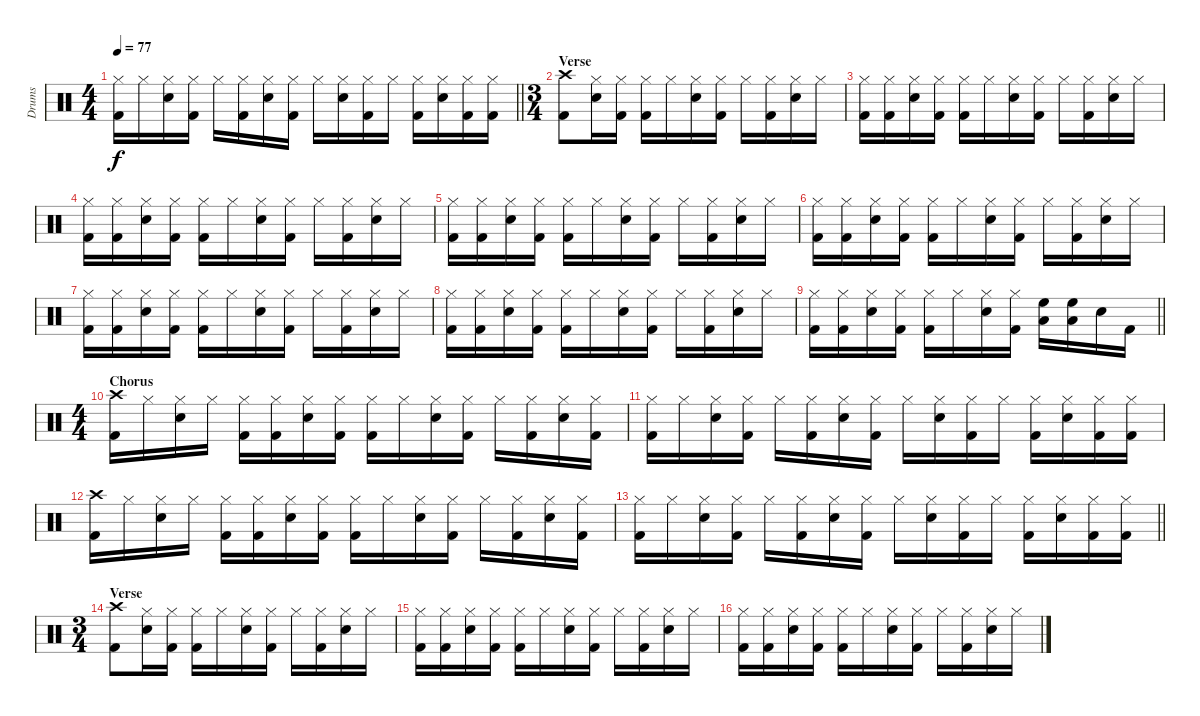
\track ("Drums" "Drums") {instrument percussion}
\staff {score}
\articulation defaults
\ts (4 4)
\tempo 77
\clef neutral
\barLineRight lightlight
\ks c
("Hi-Hat (closed)" "Kick (hit) 2").16{dy f} "Hi-Hat (closed)".16 ("Hi-Hat (closed)" "Snare (hit) 2").16 ("Hi-Hat (closed)" "Kick (hit) 2").16 "Hi-Hat (closed)".16 ("Hi-Hat (closed)" "Kick (hit) 2").16 ("Hi-Hat (closed)" "Snare (hit) 2").16 ("Hi-Hat (closed)" "Kick (hit) 2").16 "Hi-Hat (closed)".16 ("Hi-Hat (closed)" "Snare (hit) 2").16 ("Hi-Hat (closed)" "Kick (hit) 2").16 "Hi-Hat (closed)".16 ("Hi-Hat (closed)" "Kick (hit) 2").16 ("Hi-Hat (closed)" "Snare (hit) 2").16 ("Hi-Hat (closed)" "Kick (hit) 2").16 ("Hi-Hat (closed)" "Kick (hit) 2").16 |
\ts (3 4)
\section ("" "Verse")
("Crash high (hit)" "Kick (hit) 2").8 ("Hi-Hat (closed)" "Snare (hit) 2").16 ("Hi-Hat (closed)" "Kick (hit) 2").16 ("Hi-Hat (closed)" "Kick (hit) 2").16 "Hi-Hat (closed)".16 ("Hi-Hat (closed)" "Snare (hit) 2").16 ("Hi-Hat (closed)" "Kick (hit) 2").16 "Hi-Hat (closed)".16 ("Hi-Hat (closed)" "Kick (hit) 2").16 ("Hi-Hat (closed)" "Snare (hit) 2").16 "Hi-Hat (closed)".16 |
("Hi-Hat (closed)" "Kick (hit) 2").16 ("Hi-Hat (closed)" "Kick (hit) 2").16 ("Hi-Hat (closed)" "Snare (hit) 2").16 ("Hi-Hat (closed)" "Kick (hit) 2").16 ("Hi-Hat (closed)" "Kick (hit) 2").16 "Hi-Hat (closed)".16 ("Hi-Hat (closed)" "Snare (hit) 2").16 ("Hi-Hat (closed)" "Kick (hit) 2").16 "Hi-Hat (closed)".16 ("Hi-Hat (closed)" "Kick (hit) 2").16 ("Hi-Hat (closed)" "Snare (hit) 2").16 "Hi-Hat (closed)".16 |
("Hi-Hat (closed)" "Kick (hit) 2").16 ("Hi-Hat (closed)" "Kick (hit) 2").16 ("Hi-Hat (closed)" "Snare (hit) 2").16 ("Hi-Hat (closed)" "Kick (hit) 2").16 ("Hi-Hat (closed)" "Kick (hit) 2").16 "Hi-Hat (closed)".16 ("Hi-Hat (closed)" "Snare (hit) 2").16 ("Hi-Hat (closed)" "Kick (hit) 2").16 "Hi-Hat (closed)".16 ("Hi-Hat (closed)" "Kick (hit) 2").16 ("Hi-Hat (closed)" "Snare (hit) 2").16 "Hi-Hat (closed)".16 |
("Hi-Hat (closed)" "Kick (hit) 2").16 ("Hi-Hat (closed)" "Kick (hit) 2").16 ("Hi-Hat (closed)" "Snare (hit) 2").16 ("Hi-Hat (closed)" "Kick (hit) 2").16 ("Hi-Hat (closed)" "Kick (hit) 2").16 "Hi-Hat (closed)".16 ("Hi-Hat (closed)" "Snare (hit) 2").16 ("Hi-Hat (closed)" "Kick (hit) 2").16 "Hi-Hat (closed)".16 ("Hi-Hat (closed)" "Kick (hit) 2").16 ("Hi-Hat (closed)" "Snare (hit) 2").16 "Hi-Hat (closed)".16 |
("Hi-Hat (closed)" "Kick (hit) 2").16 ("Hi-Hat (closed)" "Kick (hit) 2").16 ("Hi-Hat (closed)" "Snare (hit) 2").16 ("Hi-Hat (closed)" "Kick (hit) 2").16 ("Hi-Hat (closed)" "Kick (hit) 2").16 "Hi-Hat (closed)".16 ("Hi-Hat (closed)" "Snare (hit) 2").16 ("Hi-Hat (closed)" "Kick (hit) 2").16 "Hi-Hat (closed)".16 ("Hi-Hat (closed)" "Kick (hit) 2").16 ("Hi-Hat (closed)" "Snare (hit) 2").16 "Hi-Hat (closed)".16 |
("Hi-Hat (closed)" "Kick (hit) 2").16 ("Hi-Hat (closed)" "Kick (hit) 2").16 ("Hi-Hat (closed)" "Snare (hit) 2").16 ("Hi-Hat (closed)" "Kick (hit) 2").16 ("Hi-Hat (closed)" "Kick (hit) 2").16 "Hi-Hat (closed)".16 ("Hi-Hat (closed)" "Snare (hit) 2").16 ("Hi-Hat (closed)" "Kick (hit) 2").16 "Hi-Hat (closed)".16 ("Hi-Hat (closed)" "Kick (hit) 2").16 ("Hi-Hat (closed)" "Snare (hit) 2").16 "Hi-Hat (closed)".16 |
("Hi-Hat (closed)" "Kick (hit) 2").16 ("Hi-Hat (closed)" "Kick (hit) 2").16 ("Hi-Hat (closed)" "Snare (hit) 2").16 ("Hi-Hat (closed)" "Kick (hit) 2").16 ("Hi-Hat (closed)" "Kick (hit) 2").16 "Hi-Hat (closed)".16 ("Hi-Hat (closed)" "Snare (hit) 2").16 ("Hi-Hat (closed)" "Kick (hit) 2").16 "Hi-Hat (closed)".16 ("Hi-Hat (closed)" "Kick (hit) 2").16 ("Hi-Hat (closed)" "Snare (hit) 2").16 "Hi-Hat (closed)".16 |
\barLineRight lightlight
("Hi-Hat (closed)" "Kick (hit) 2").16 ("Hi-Hat (closed)" "Kick (hit) 2").16 ("Hi-Hat (closed)" "Snare (hit) 2").16 ("Hi-Hat (closed)" "Kick (hit) 2").16 ("Hi-Hat (closed)" "Kick (hit) 2").16 "Hi-Hat (closed)".16 ("Hi-Hat (closed)" "Snare (hit) 2").16 ("Hi-Hat (closed)" "Kick (hit) 2").16 ("High Floor Tom (hit)" "Low Floor Tom (hit)").16 ("High Floor Tom (hit)" "Low Floor Tom (hit)").16 "Snare (hit) 2".16 "Kick (hit) 2".16 |
\ts (4 4)
\section ("" "Chorus")
("Crash high (hit)" "Kick (hit) 2").16 "Hi-Hat (closed)".16 ("Hi-Hat (closed)" "Snare (hit) 2").16 "Hi-Hat (closed)".16 ("Hi-Hat (closed)" "Kick (hit) 2").16 ("Hi-Hat (closed)" "Kick (hit) 2").16 ("Hi-Hat (closed)" "Snare (hit) 2").16 ("Hi-Hat (closed)" "Kick (hit) 2").16 ("Hi-Hat (closed)" "Kick (hit) 2").16 "Hi-Hat (closed)".16 ("Hi-Hat (closed)" "Snare (hit) 2").16 ("Hi-Hat (closed)" "Kick (hit) 2").16 "Hi-Hat (closed)".16 ("Hi-Hat (closed)" "Kick (hit) 2").16 ("Hi-Hat (closed)" "Snare (hit) 2").16 ("Hi-Hat (closed)" "Kick (hit) 2").16 |
("Hi-Hat (closed)" "Kick (hit) 2").16 "Hi-Hat (closed)".16 ("Hi-Hat (closed)" "Snare (hit) 2").16 ("Hi-Hat (closed)" "Kick (hit) 2").16 "Hi-Hat (closed)".16 ("Hi-Hat (closed)" "Kick (hit) 2").16 ("Hi-Hat (closed)" "Snare (hit) 2").16 ("Hi-Hat (closed)" "Kick (hit) 2").16 "Hi-Hat (closed)".16 ("Hi-Hat (closed)" "Snare (hit) 2").16 ("Hi-Hat (closed)" "Kick (hit) 2").16 "Hi-Hat (closed)".16 ("Hi-Hat (closed)" "Kick (hit) 2").16 ("Hi-Hat (closed)" "Snare (hit) 2").16 ("Hi-Hat (closed)" "Kick (hit) 2").16 ("Hi-Hat (closed)" "Kick (hit) 2").16 |
("Crash high (hit)" "Kick (hit) 2").16 "Hi-Hat (closed)".16 ("Hi-Hat (closed)" "Snare (hit) 2").16 "Hi-Hat (closed)".16 ("Hi-Hat (closed)" "Kick (hit) 2").16 ("Hi-Hat (closed)" "Kick (hit) 2").16 ("Hi-Hat (closed)" "Snare (hit) 2").16 ("Hi-Hat (closed)" "Kick (hit) 2").16 ("Hi-Hat (closed)" "Kick (hit) 2").16 "Hi-Hat (closed)".16 ("Hi-Hat (closed)" "Snare (hit) 2").16 ("Hi-Hat (closed)" "Kick (hit) 2").16 "Hi-Hat (closed)".16 ("Hi-Hat (closed)" "Kick (hit) 2").16 ("Hi-Hat (closed)" "Snare (hit) 2").16 ("Hi-Hat (closed)" "Kick (hit) 2").16 |
\barLineRight lightlight
("Hi-Hat (closed)" "Kick (hit) 2").16 "Hi-Hat (closed)".16 ("Hi-Hat (closed)" "Snare (hit) 2").16 ("Hi-Hat (closed)" "Kick (hit) 2").16 "Hi-Hat (closed)".16 ("Hi-Hat (closed)" "Kick (hit) 2").16 ("Hi-Hat (closed)" "Snare (hit) 2").16 ("Hi-Hat (closed)" "Kick (hit) 2").16 "Hi-Hat (closed)".16 ("Hi-Hat (closed)" "Snare (hit) 2").16 ("Hi-Hat (closed)" "Kick (hit) 2").16 "Hi-Hat (closed)".16 ("Hi-Hat (closed)" "Kick (hit) 2").16 ("Hi-Hat (closed)" "Snare (hit) 2").16 ("Hi-Hat (closed)" "Kick (hit) 2").16 ("Hi-Hat (closed)" "Kick (hit) 2").16 |
\ts (3 4)
\section ("" "Verse")
("Crash high (hit)" "Kick (hit) 2").8 ("Hi-Hat (closed)" "Snare (hit) 2").16 ("Hi-Hat (closed)" "Kick (hit) 2").16 ("Hi-Hat (closed)" "Kick (hit) 2").16 "Hi-Hat (closed)".16 ("Hi-Hat (closed)" "Snare (hit) 2").16 ("Hi-Hat (closed)" "Kick (hit) 2").16 "Hi-Hat (closed)".16 ("Hi-Hat (closed)" "Kick (hit) 2").16 ("Hi-Hat (closed)" "Snare (hit) 2").16 "Hi-Hat (closed)".16 |
("Hi-Hat (closed)" "Kick (hit) 2").16 ("Hi-Hat (closed)" "Kick (hit) 2").16 ("Hi-Hat (closed)" "Snare (hit) 2").16 ("Hi-Hat (closed)" "Kick (hit) 2").16 ("Hi-Hat (closed)" "Kick (hit) 2").16 "Hi-Hat (closed)".16 ("Hi-Hat (closed)" "Snare (hit) 2").16 ("Hi-Hat (closed)" "Kick (hit) 2").16 "Hi-Hat (closed)".16 ("Hi-Hat (closed)" "Kick (hit) 2").16 ("Hi-Hat (closed)" "Snare (hit) 2").16 "Hi-Hat (closed)".16 |
("Hi-Hat (closed)" "Kick (hit) 2").16 ("Hi-Hat (closed)" "Kick (hit) 2").16 ("Hi-Hat (closed)" "Snare (hit) 2").16 ("Hi-Hat (closed)" "Kick (hit) 2").16 ("Hi-Hat (closed)" "Kick (hit) 2").16 "Hi-Hat (closed)".16 ("Hi-Hat (closed)" "Snare (hit) 2").16 ("Hi-Hat (closed)" "Kick (hit) 2").16 "Hi-Hat (closed)".16 ("Hi-Hat (closed)" "Kick (hit) 2").16 ("Hi-Hat (closed)" "Snare (hit) 2").16 "Hi-Hat (closed)".16
